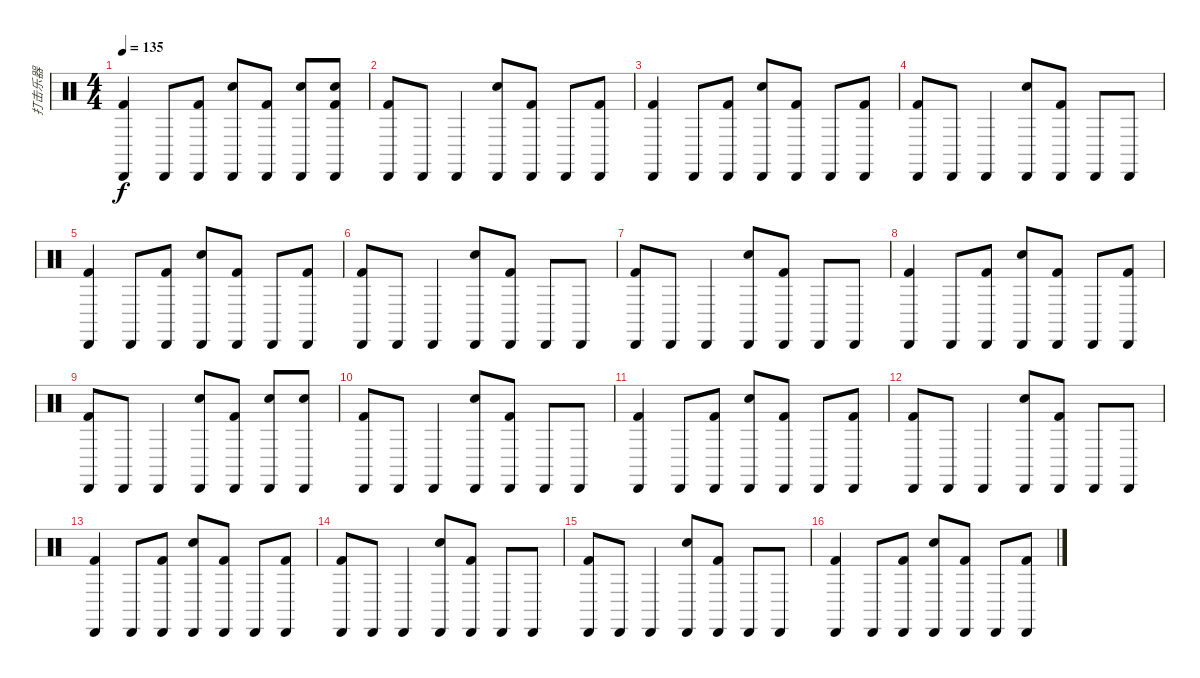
\track ("打击乐器" "打击乐器") {instrument percussion}
\staff {score}
\articulation defaults
\ts (4 4)
\tempo 135
\clef neutral
\ks c
("Cabasa (hit)" "Kick (hit) 2").4{dy f} "Cabasa (hit)".8 ("Cabasa (hit)" "Kick (hit) 2").8 ("Snare (hit) 2" "Cabasa (hit)").8 ("Cabasa (hit)" "Kick (hit) 2").8 ("Snare (hit) 2" "Cabasa (hit)").8 ("Snare (hit) 2" "Cabasa (hit)" "Kick (hit) 2").8 |
("Cabasa (hit)" "Kick (hit) 2").8 "Cabasa (hit)".8 "Cabasa (hit)".4 ("Snare (hit) 2" "Cabasa (hit)").8 ("Cabasa (hit)" "Kick (hit) 2").8 "Cabasa (hit)".8 ("Cabasa (hit)" "Kick (hit) 2").8 |
("Cabasa (hit)" "Kick (hit) 2").4 "Cabasa (hit)".8 ("Cabasa (hit)" "Kick (hit) 2").8 ("Snare (hit) 2" "Cabasa (hit)").8 ("Cabasa (hit)" "Kick (hit) 2").8 "Cabasa (hit)".8 ("Cabasa (hit)" "Kick (hit) 2").8 |
("Cabasa (hit)" "Kick (hit) 2").8 "Cabasa (hit)".8 "Cabasa (hit)".4 ("Snare (hit) 2" "Cabasa (hit)").8 ("Cabasa (hit)" "Kick (hit) 2").8 "Cabasa (hit)".8 "Cabasa (hit)".8 |
("Cabasa (hit)" "Kick (hit) 2").4 "Cabasa (hit)".8 ("Cabasa (hit)" "Kick (hit) 2").8 ("Snare (hit) 2" "Cabasa (hit)").8 ("Cabasa (hit)" "Kick (hit) 2").8 "Cabasa (hit)".8 ("Cabasa (hit)" "Kick (hit) 2").8 |
("Cabasa (hit)" "Kick (hit) 2").8 "Cabasa (hit)".8 "Cabasa (hit)".4 ("Snare (hit) 2" "Cabasa (hit)").8 ("Cabasa (hit)" "Kick (hit) 2").8 "Cabasa (hit)".8 "Cabasa (hit)".8 |
("Cabasa (hit)" "Kick (hit) 2").8 "Cabasa (hit)".8 "Cabasa (hit)".4 ("Snare (hit) 2" "Cabasa (hit)").8 ("Cabasa (hit)" "Kick (hit) 2").8 "Cabasa (hit)".8 "Cabasa (hit)".8 |
("Cabasa (hit)" "Kick (hit) 2").4 "Cabasa (hit)".8 ("Cabasa (hit)" "Kick (hit) 2").8 ("Snare (hit) 2" "Cabasa (hit)").8 ("Cabasa (hit)" "Kick (hit) 2").8 "Cabasa (hit)".8 ("Cabasa (hit)" "Kick (hit) 2").8 |
("Cabasa (hit)" "Kick (hit) 2").8 "Cabasa (hit)".8 "Cabasa (hit)".4 ("Snare (hit) 2" "Cabasa (hit)").8 ("Cabasa (hit)" "Kick (hit) 2").8 ("Snare (hit) 2" "Cabasa (hit)").8 ("Snare (hit) 2" "Cabasa (hit)").8 |
("Cabasa (hit)" "Kick (hit) 2").8 "Cabasa (hit)".8 "Cabasa (hit)".4 ("Snare (hit) 2" "Cabasa (hit)").8 ("Cabasa (hit)" "Kick (hit) 2").8 "Cabasa (hit)".8 "Cabasa (hit)".8 |
("Cabasa (hit)" "Kick (hit) 2").4 "Cabasa (hit)".8 ("Cabasa (hit)" "Kick (hit) 2").8 ("Snare (hit) 2" "Cabasa (hit)").8 ("Cabasa (hit)" "Kick (hit) 2").8 "Cabasa (hit)".8 ("Cabasa (hit)" "Kick (hit) 2").8 |
("Cabasa (hit)" "Kick (hit) 2").8 "Cabasa (hit)".8 "Cabasa (hit)".4 ("Snare (hit) 2" "Cabasa (hit)").8 ("Cabasa (hit)" "Kick (hit) 2").8 "Cabasa (hit)".8 "Cabasa (hit)".8 |
("Cabasa (hit)" "Kick (hit) 2").4 "Cabasa (hit)".8 ("Cabasa (hit)" "Kick (hit) 2").8 ("Snare (hit) 2" "Cabasa (hit)").8 ("Cabasa (hit)" "Kick (hit) 2").8 "Cabasa (hit)".8 ("Cabasa (hit)" "Kick (hit) 2").8 |
("Cabasa (hit)" "Kick (hit) 2").8 "Cabasa (hit)".8 "Cabasa (hit)".4 ("Snare (hit) 2" "Cabasa (hit)").8 ("Cabasa (hit)" "Kick (hit) 2").8 "Cabasa (hit)".8 "Cabasa (hit)".8 |
("Cabasa (hit)" "Kick (hit) 2").8 "Cabasa (hit)".8 "Cabasa (hit)".4 ("Snare (hit) 2" "Cabasa (hit)").8 ("Cabasa (hit)" "Kick (hit) 2").8 "Cabasa (hit)".8 "Cabasa (hit)".8 |
("Cabasa (hit)" "Kick (hit) 2").4 "Cabasa (hit)".8 ("Cabasa (hit)" "Kick (hit) 2").8 ("Snare (hit) 2" "Cabasa (hit)").8 ("Cabasa (hit)" "Kick (hit) 2").8 "Cabasa (hit)".8 ("Cabasa (hit)" "Kick (hit) 2").8
